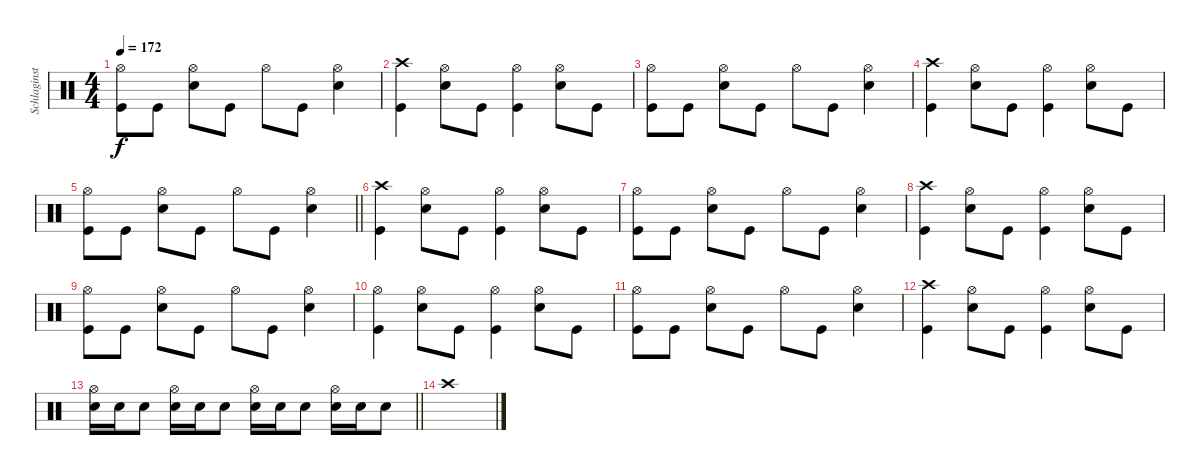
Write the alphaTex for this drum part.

\track ("Schlaginstrumente - Auswahl" "Schlaginst") {instrument percussion}
\staff {score}
\articulation defaults
\ts (4 4)
\tempo 172
\clef neutral
\ks c
("Hi-Hat (open)" "Kick (hit)").8{dy f} "Kick (hit)".8 ("Hi-Hat (open)" "Snare (hit) 2").8 "Kick (hit)".8 "Hi-Hat (open)".8 "Kick (hit)".8 ("Hi-Hat (open)" "Snare (hit) 2").4 |
("Crash high (hit)" "Kick (hit)").4 ("Hi-Hat (open)" "Snare (hit) 2").8 "Kick (hit)".8 ("Hi-Hat (open)" "Kick (hit)").4 ("Hi-Hat (open)" "Snare (hit) 2").8 "Kick (hit)".8 |
("Hi-Hat (open)" "Kick (hit)").8 "Kick (hit)".8 ("Hi-Hat (open)" "Snare (hit) 2").8 "Kick (hit)".8 "Hi-Hat (open)".8 "Kick (hit)".8 ("Hi-Hat (open)" "Snare (hit) 2").4 |
("Crash high (hit)" "Kick (hit)").4 ("Hi-Hat (open)" "Snare (hit) 2").8 "Kick (hit)".8 ("Hi-Hat (open)" "Kick (hit)").4 ("Hi-Hat (open)" "Snare (hit) 2").8 "Kick (hit)".8 |
\barLineRight lightlight
("Hi-Hat (open)" "Kick (hit)").8 "Kick (hit)".8 ("Hi-Hat (open)" "Snare (hit) 2").8 "Kick (hit)".8 "Hi-Hat (open)".8 "Kick (hit)".8 ("Hi-Hat (open)" "Snare (hit) 2").4 |
("Crash high (hit)" "Kick (hit)").4 ("Hi-Hat (open)" "Snare (hit) 2").8 "Kick (hit)".8 ("Hi-Hat (open)" "Kick (hit)").4 ("Hi-Hat (open)" "Snare (hit) 2").8 "Kick (hit)".8 |
("Hi-Hat (open)" "Kick (hit)").8 "Kick (hit)".8 ("Hi-Hat (open)" "Snare (hit) 2").8 "Kick (hit)".8 "Hi-Hat (open)".8 "Kick (hit)".8 ("Hi-Hat (open)" "Snare (hit) 2").4 |
("Crash high (hit)" "Kick (hit)").4 ("Hi-Hat (open)" "Snare (hit) 2").8 "Kick (hit)".8 ("Hi-Hat (open)" "Kick (hit)").4 ("Hi-Hat (open)" "Snare (hit) 2").8 "Kick (hit)".8 |
("Hi-Hat (open)" "Kick (hit)").8 "Kick (hit)".8 ("Hi-Hat (open)" "Snare (hit) 2").8 "Kick (hit)".8 "Hi-Hat (open)".8 "Kick (hit)".8 ("Hi-Hat (open)" "Snare (hit) 2").4 |
("Hi-Hat (open)" "Kick (hit)").4 ("Hi-Hat (open)" "Snare (hit) 2").8 "Kick (hit)".8 ("Hi-Hat (open)" "Kick (hit)").4 ("Hi-Hat (open)" "Snare (hit) 2").8 "Kick (hit)".8 |
("Hi-Hat (open)" "Kick (hit)").8 "Kick (hit)".8 ("Hi-Hat (open)" "Snare (hit) 2").8 "Kick (hit)".8 "Hi-Hat (open)".8 "Kick (hit)".8 ("Hi-Hat (open)" "Snare (hit) 2").4 |
("Crash high (hit)" "Kick (hit)").4 ("Hi-Hat (open)" "Snare (hit) 2").8 "Kick (hit)".8 ("Hi-Hat (open)" "Kick (hit)").4 ("Hi-Hat (open)" "Snare (hit) 2").8 "Kick (hit)".8 |
\barLineRight lightlight
("Hi-Hat (open)" "Snare (hit) 2").16 "Snare (hit) 2".16 "Snare (hit) 2".8 ("Hi-Hat (open)" "Snare (hit) 2").16 "Snare (hit) 2".16 "Snare (hit) 2".8 ("Hi-Hat (open)" "Snare (hit) 2").16 "Snare (hit) 2".16 "Snare (hit) 2".8 ("Hi-Hat (open)" "Snare (hit) 2").16 "Snare (hit) 2".16 "Snare (hit) 2".8 |
"Crash high (hit)".1
